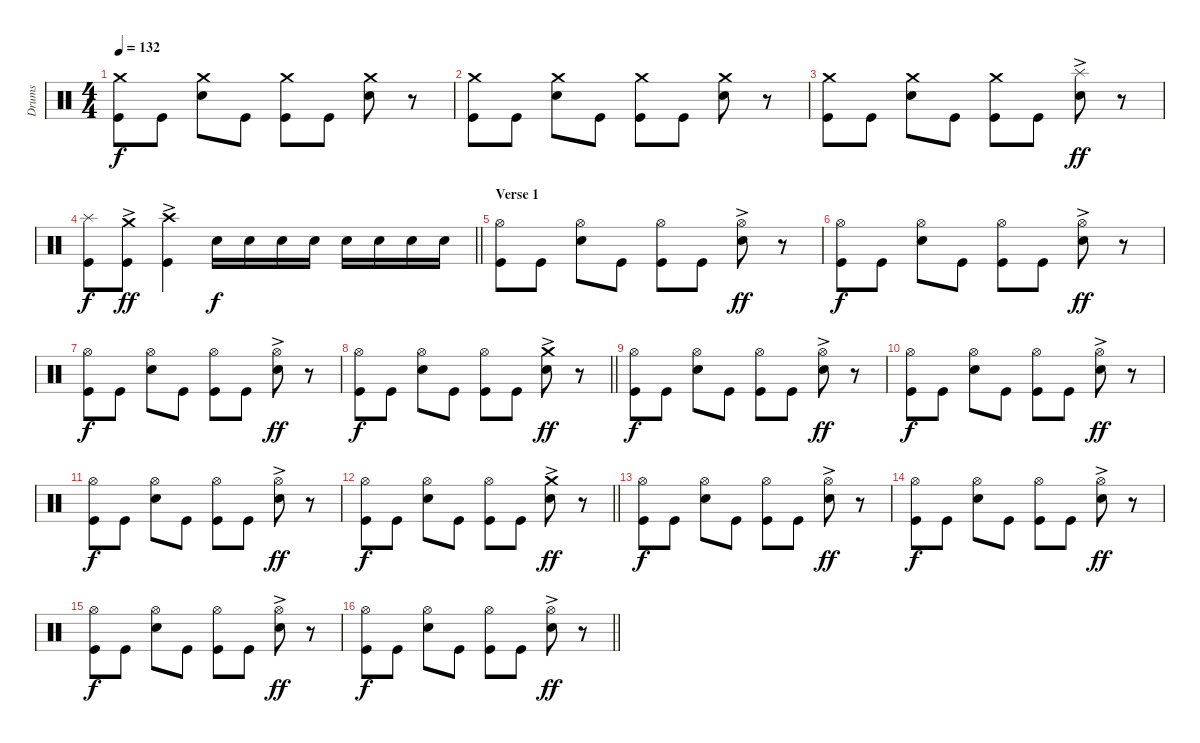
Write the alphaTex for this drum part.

\track ("Drums" "Drums") {instrument percussion}
\staff {score}
\articulation defaults
\ts (4 4)
\tempo 132
\clef neutral
\ks c
("Crash medium (hit)" "Kick (hit)").8{dy f} "Kick (hit)".8 ("Crash medium (hit)" "Snare (hit) 2").8 "Kick (hit)".8 ("Crash medium (hit)" "Kick (hit)").8 "Kick (hit)".8 ("Crash medium (hit)" "Snare (hit) 2").8 r.8 |
("Crash medium (hit)" "Kick (hit)").8 "Kick (hit)".8 ("Crash medium (hit)" "Snare (hit) 2").8 "Kick (hit)".8 ("Crash medium (hit)" "Kick (hit)").8 "Kick (hit)".8 ("Crash medium (hit)" "Snare (hit) 2").8 r.8 |
("Crash medium (hit)" "Kick (hit)").8 "Kick (hit)".8 ("Crash medium (hit)" "Snare (hit) 2").8 "Kick (hit)".8 ("Crash medium (hit)" "Kick (hit)").8 "Kick (hit)".8 ("Splash (hit)"{ac} "Snare (hit) 2").8{dy ff} r.8 |
\barLineRight lightlight
("Splash (hit)" "Kick (hit)").8{dy f} ("Crash medium (hit)"{ac} "Kick (hit)").8{dy ff} ("Crash high (hit)"{ac} "Kick (hit)").4 "Snare (hit) 2".16{dy f} "Snare (hit) 2".16 "Snare (hit) 2".16 "Snare (hit) 2".16 "Snare (hit) 2".16 "Snare (hit) 2".16 "Snare (hit) 2".16 "Snare (hit) 2".16 |
\section ("" "Verse 1")
("Hi-Hat (open)" "Kick (hit)").8 "Kick (hit)".8 ("Hi-Hat (open)" "Snare (hit) 2").8 "Kick (hit)".8 ("Hi-Hat (open)" "Kick (hit)").8 "Kick (hit)".8 ("Hi-Hat (open)"{ac} "Snare (hit) 2").8{dy ff} r.8 |
("Hi-Hat (open)" "Kick (hit)").8{dy f} "Kick (hit)".8 ("Hi-Hat (open)" "Snare (hit) 2").8 "Kick (hit)".8 ("Hi-Hat (open)" "Kick (hit)").8 "Kick (hit)".8 ("Hi-Hat (open)"{ac} "Snare (hit) 2").8{dy ff} r.8 |
("Hi-Hat (open)" "Kick (hit)").8{dy f} "Kick (hit)".8 ("Hi-Hat (open)" "Snare (hit) 2").8 "Kick (hit)".8 ("Hi-Hat (open)" "Kick (hit)").8 "Kick (hit)".8 ("Hi-Hat (open)"{ac} "Snare (hit) 2").8{dy ff} r.8 |
\barLineRight lightlight
("Hi-Hat (open)" "Kick (hit)").8{dy f} "Kick (hit)".8 ("Hi-Hat (open)" "Snare (hit) 2").8 "Kick (hit)".8 ("Hi-Hat (open)" "Kick (hit)").8 "Kick (hit)".8 ("Crash medium (hit)"{ac} "Snare (hit) 2").8{dy ff} r.8 |
("Hi-Hat (open)" "Kick (hit)").8{dy f} "Kick (hit)".8 ("Hi-Hat (open)" "Snare (hit) 2").8 "Kick (hit)".8 ("Hi-Hat (open)" "Kick (hit)").8 "Kick (hit)".8 ("Hi-Hat (open)"{ac} "Snare (hit) 2").8{dy ff} r.8 |
("Hi-Hat (open)" "Kick (hit)").8{dy f} "Kick (hit)".8 ("Hi-Hat (open)" "Snare (hit) 2").8 "Kick (hit)".8 ("Hi-Hat (open)" "Kick (hit)").8 "Kick (hit)".8 ("Hi-Hat (open)"{ac} "Snare (hit) 2").8{dy ff} r.8 |
("Hi-Hat (open)" "Kick (hit)").8{dy f} "Kick (hit)".8 ("Hi-Hat (open)" "Snare (hit) 2").8 "Kick (hit)".8 ("Hi-Hat (open)" "Kick (hit)").8 "Kick (hit)".8 ("Hi-Hat (open)"{ac} "Snare (hit) 2").8{dy ff} r.8 |
\barLineRight lightlight
("Hi-Hat (open)" "Kick (hit)").8{dy f} "Kick (hit)".8 ("Hi-Hat (open)" "Snare (hit) 2").8 "Kick (hit)".8 ("Hi-Hat (open)" "Kick (hit)").8 "Kick (hit)".8 ("Crash medium (hit)"{ac} "Snare (hit) 2").8{dy ff} r.8 |
("Hi-Hat (open)" "Kick (hit)").8{dy f} "Kick (hit)".8 ("Hi-Hat (open)" "Snare (hit) 2").8 "Kick (hit)".8 ("Hi-Hat (open)" "Kick (hit)").8 "Kick (hit)".8 ("Hi-Hat (open)"{ac} "Snare (hit) 2").8{dy ff} r.8 |
("Hi-Hat (open)" "Kick (hit)").8{dy f} "Kick (hit)".8 ("Hi-Hat (open)" "Snare (hit) 2").8 "Kick (hit)".8 ("Hi-Hat (open)" "Kick (hit)").8 "Kick (hit)".8 ("Hi-Hat (open)"{ac} "Snare (hit) 2").8{dy ff} r.8 |
("Hi-Hat (open)" "Kick (hit)").8{dy f} "Kick (hit)".8 ("Hi-Hat (open)" "Snare (hit) 2").8 "Kick (hit)".8 ("Hi-Hat (open)" "Kick (hit)").8 "Kick (hit)".8 ("Hi-Hat (open)"{ac} "Snare (hit) 2").8{dy ff} r.8 |
\barLineRight lightlight
("Hi-Hat (open)" "Kick (hit)").8{dy f} "Kick (hit)".8 ("Hi-Hat (open)" "Snare (hit) 2").8 "Kick (hit)".8 ("Hi-Hat (open)" "Kick (hit)").8 "Kick (hit)".8 ("Hi-Hat (open)"{ac} "Snare (hit) 2").8{dy ff} r.8
